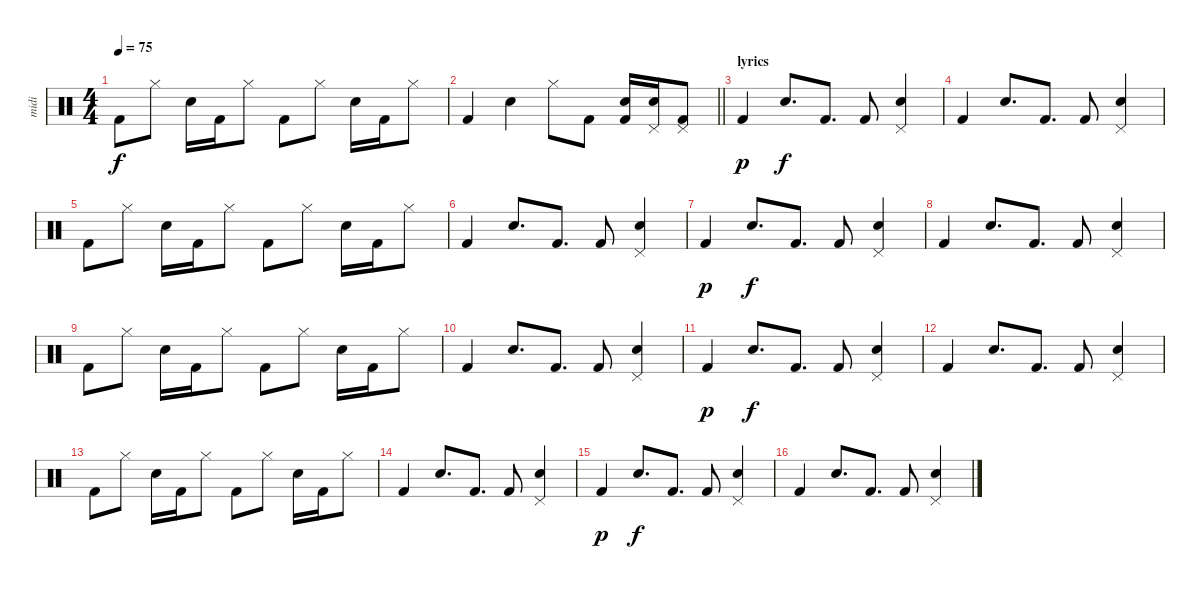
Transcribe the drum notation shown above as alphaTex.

\track ("midi" "midi") {instrument percussion}
\staff {score}
\articulation defaults
\ts (4 4)
\tempo 75
\clef neutral
\ks c "Kick (hit) 2".8{dy f} "Hi-Hat (closed)".8 "Electric Snare (hit)".16 "Kick (hit) 2".16 "Hi-Hat (closed)".8 "Kick (hit) 2".8 "Hi-Hat (closed)".8 "Electric Snare (hit)".16 "Kick (hit) 2".16 "Hi-Hat (closed)".8
|
\barLineRight lightlight "Kick (hit) 2".4 "Electric Snare (hit)".4 "Hi-Hat (closed)".8 "Kick (hit) 2".8
("Kick (hit) 2" "Electric Snare (hit)").16 ("Electric Snare (hit)" "Pedal Hi-Hat (hit)").16 ("Kick (hit) 2" "Pedal Hi-Hat (hit)").8 |
\section ("" "lyrics")
"Kick (hit) 2".4{dy p} "Electric Snare (hit)".8{d dy f} "Kick (hit) 2".8{d} "Kick (hit) 2".8 ("Electric Snare (hit)" "Pedal Hi-Hat (hit)").4 |
"Kick (hit) 2".4 "Electric Snare (hit)".8{d} "Kick (hit) 2".8{d} "Kick (hit) 2".8 ("Electric Snare (hit)" "Pedal Hi-Hat (hit)").4 |
"Kick (hit) 2".8 "Hi-Hat (closed)".8 "Electric Snare (hit)".16 "Kick (hit) 2".16 "Hi-Hat (closed)".8 "Kick (hit) 2".8 "Hi-Hat (closed)".8 "Electric Snare (hit)".16 "Kick (hit) 2".16 "Hi-Hat (closed)".8 |
"Kick (hit) 2".4 "Electric Snare (hit)".8{d} "Kick (hit) 2".8{d} "Kick (hit) 2".8 ("Electric Snare (hit)" "Pedal Hi-Hat (hit)").4 |
"Kick (hit) 2".4{dy p} "Electric Snare (hit)".8{d dy f} "Kick (hit) 2".8{d} "Kick (hit) 2".8 ("Electric Snare (hit)" "Pedal Hi-Hat (hit)").4 |
"Kick (hit) 2".4 "Electric Snare (hit)".8{d} "Kick (hit) 2".8{d} "Kick (hit) 2".8 ("Electric Snare (hit)" "Pedal Hi-Hat (hit)").4 |
"Kick (hit) 2".8 "Hi-Hat (closed)".8 "Electric Snare (hit)".16 "Kick (hit) 2".16 "Hi-Hat (closed)".8 "Kick (hit) 2".8 "Hi-Hat (closed)".8 "Electric Snare (hit)".16 "Kick (hit) 2".16 "Hi-Hat (closed)".8 |
"Kick (hit) 2".4 "Electric Snare (hit)".8{d} "Kick (hit) 2".8{d} "Kick (hit) 2".8 ("Electric Snare (hit)" "Pedal Hi-Hat (hit)").4 |
"Kick (hit) 2".4{dy p} "Electric Snare (hit)".8{d dy f} "Kick (hit) 2".8{d} "Kick (hit) 2".8 ("Electric Snare (hit)" "Pedal Hi-Hat (hit)").4 |
"Kick (hit) 2".4 "Electric Snare (hit)".8{d} "Kick (hit) 2".8{d} "Kick (hit) 2".8 ("Electric Snare (hit)" "Pedal Hi-Hat (hit)").4 |
"Kick (hit) 2".8 "Hi-Hat (closed)".8 "Electric Snare (hit)".16 "Kick (hit) 2".16 "Hi-Hat (closed)".8 "Kick (hit) 2".8 "Hi-Hat (closed)".8 "Electric Snare (hit)".16 "Kick (hit) 2".16 "Hi-Hat (closed)".8 |
"Kick (hit) 2".4 "Electric Snare (hit)".8{d} "Kick (hit) 2".8{d} "Kick (hit) 2".8 ("Electric Snare (hit)" "Pedal Hi-Hat (hit)").4 |
"Kick (hit) 2".4{dy p} "Electric Snare (hit)".8{d dy f} "Kick (hit) 2".8{d} "Kick (hit) 2".8 ("Electric Snare (hit)" "Pedal Hi-Hat (hit)").4 |
"Kick (hit) 2".4 "Electric Snare (hit)".8{d} "Kick (hit) 2".8{d} "Kick (hit) 2".8 ("Electric Snare (hit)" "Pedal Hi-Hat (hit)").4
